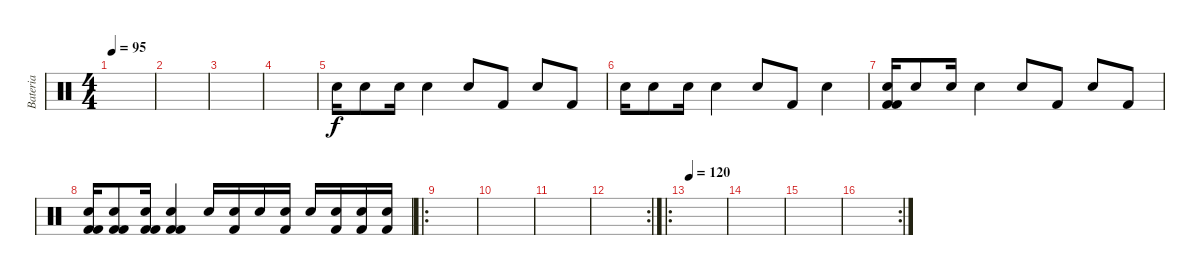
\track ("Bateria" "Bateria") {instrument percussion}
\staff {score}
\articulation defaults
\ts (4 4)
\tempo 95
\clef neutral
\ks c
|
|
|
|
"Electric Snare (hit)".16 "Electric Snare (hit)".8 "Electric Snare (hit)".16 "Electric Snare (hit)".4 "Electric Snare (hit)".8 "Kick (hit) 2".8 "Electric Snare (hit)".8 "Kick (hit) 2".8 |
"Electric Snare (hit)".16 "Electric Snare (hit)".8 "Electric Snare (hit)".16 "Electric Snare (hit)".4 "Electric Snare (hit)".8 "Kick (hit) 2".8 "Electric Snare (hit)".4 |
("Kick (hit) 2" "Kick (hit) 2" "Electric Snare (hit)").16 "Electric Snare (hit)".8 "Electric Snare (hit)".16 "Electric Snare (hit)".4 "Electric Snare (hit)".8 "Kick (hit) 2".8 "Electric Snare (hit)".8 "Kick (hit) 2".8 |
("Kick (hit) 2" "Kick (hit) 2" "Electric Snare (hit)").16 ("Kick (hit) 2" "Kick (hit) 2" "Electric Snare (hit)").8 ("Kick (hit) 2" "Kick (hit) 2" "Electric Snare (hit)").16 ("Kick (hit) 2" "Kick (hit) 2" "Electric Snare (hit)").4 "Electric Snare (hit)".16 ("Kick (hit) 2" "Electric Snare (hit)").16 "Electric Snare (hit)".16 ("Kick (hit) 2" "Electric Snare (hit)").16 "Electric Snare (hit)".16 ("Kick (hit) 2" "Electric Snare (hit)").16 ("Kick (hit) 2" "Electric Snare (hit)").16 ("Kick (hit) 2" "Electric Snare (hit)").16 |
\ro
|
|
|
\rc 2
|
\ro
\tempo 120
|
|
|
\rc 2
